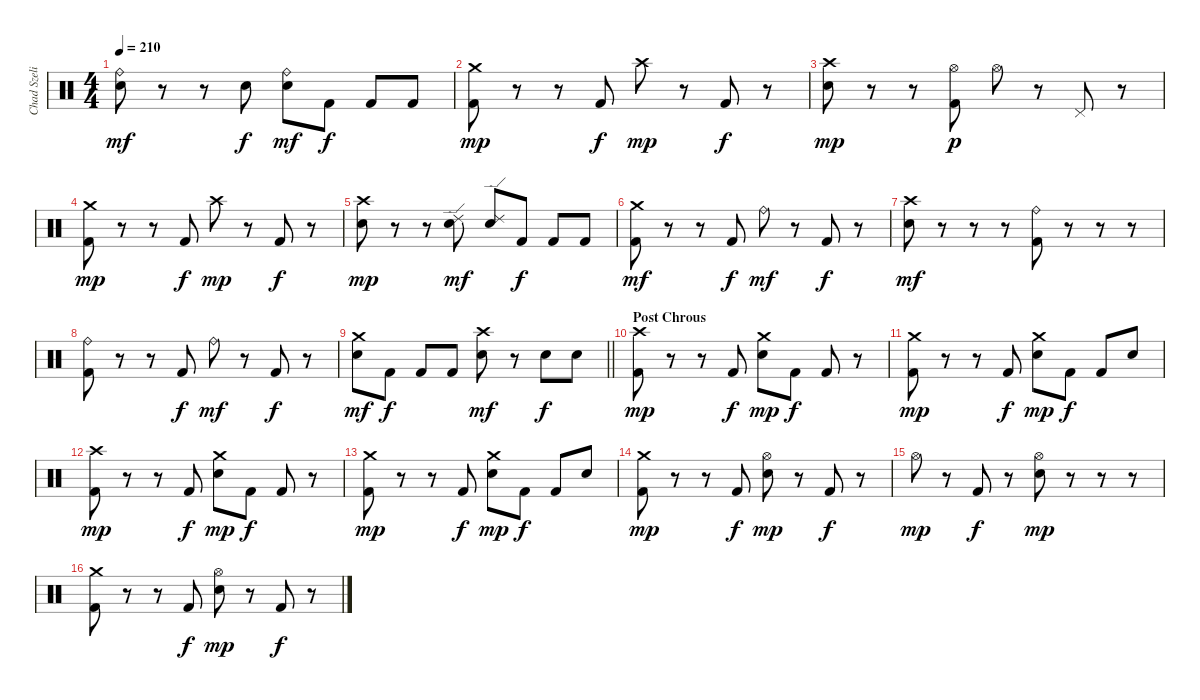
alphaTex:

\track ("Chad Szeliga" "Chad Szeli") {instrument percussion}
\staff {score}
\articulation defaults
\ts (4 4)
\tempo 210
\clef neutral
\ks c
("Snare (hit) 2" "Ride (bell)").8{dy mf} r.8 r.8 "Snare (hit) 2".8{dy f} ("Snare (hit) 2" "Ride (bell)").8{dy mf} "Kick (hit) 2".8{dy f} "Kick (hit) 2".8 "Kick (hit) 2".8 |
("Kick (hit) 2" "Crash medium (hit)").8{dy mp} r.8 r.8 "Kick (hit) 2".8{dy f} "Crash high (hit)".8{dy mp} r.8 "Kick (hit) 2".8{dy f} r.8 |
("Snare (hit) 2" "Crash high (hit)").8{dy mp} r.8 r.8 ("Kick (hit) 2" "Hi-Hat (open)").8{dy p} "Hi-Hat (open)".8 r.8 "Pedal Hi-Hat (hit)".8 r.8 |
("Kick (hit) 2" "Crash medium (hit)").8{dy mp} r.8 r.8 "Kick (hit) 2".8{dy f} "Crash high (hit)".8{dy mp} r.8 "Kick (hit) 2".8{dy f} r.8 |
("Snare (hit) 2" "Crash high (hit)").8{dy mp} r.8 r.8 ("Snare (hit) 2" "Ride (edge) 2").8{dy mf} ("Snare (hit) 2" "Ride (edge) 2").8 "Kick (hit) 2".8{dy f} "Kick (hit) 2".8 "Kick (hit) 2".8 |
("Kick (hit) 2" "Crash medium (hit)").8{dy mf} r.8 r.8 "Kick (hit) 2".8{dy f} "Ride (bell)".8{dy mf} r.8 "Kick (hit) 2".8{dy f} r.8 |
("Snare (hit) 2" "Crash high (hit)").8{dy mf} r.8 r.8 r.8 ("Kick (hit) 2" "Ride (bell)").8 r.8 r.8 r.8 |
("Kick (hit) 2" "Ride (bell)").8 r.8 r.8 "Kick (hit) 2".8{dy f} "Ride (bell)".8{dy mf} r.8 "Kick (hit) 2".8{dy f} r.8 |
\barLineRight lightlight
("Snare (hit) 2" "Crash medium (hit)").8{dy mf} "Kick (hit) 2".8{dy f} "Kick (hit) 2".8 "Kick (hit) 2".8 ("Snare (hit) 2" "Crash high (hit)").8{dy mf} r.8 "Snare (hit) 2".8{dy f} "Snare (hit) 2".8 |
\section ("" "Post Chrous")
("Kick (hit) 2" "Crash high (hit)").8{dy mp} r.8 r.8 "Kick (hit) 2".8{dy f} ("Snare (hit) 2" "Crash medium (hit)").8{dy mp} "Kick (hit) 2".8{dy f} "Kick (hit) 2".8 r.8 |
("Kick (hit) 2" "Crash medium (hit)").8{dy mp} r.8 r.8 "Kick (hit) 2".8{dy f} ("Snare (hit) 2" "Crash medium (hit)").8{dy mp} "Kick (hit) 2".8{dy f} "Kick (hit) 2".8 "Snare (hit) 2".8 |
("Kick (hit) 2" "Crash high (hit)").8{dy mp} r.8 r.8 "Kick (hit) 2".8{dy f} ("Snare (hit) 2" "Crash medium (hit)").8{dy mp} "Kick (hit) 2".8{dy f} "Kick (hit) 2".8 r.8 |
("Kick (hit) 2" "Crash medium (hit)").8{dy mp} r.8 r.8 "Kick (hit) 2".8{dy f} ("Snare (hit) 2" "Crash medium (hit)").8{dy mp} "Kick (hit) 2".8{dy f} "Kick (hit) 2".8 "Snare (hit) 2".8 |
("Kick (hit) 2" "Crash medium (hit)").8{dy mp} r.8 r.8 "Kick (hit) 2".8{dy f} ("Snare (hit) 2" "Hi-Hat (open)").8{dy mp} r.8 "Kick (hit) 2".8{dy f} r.8 |
"Hi-Hat (open)".8{dy mp} r.8 "Kick (hit) 2".8{dy f} r.8 ("Snare (hit) 2" "Hi-Hat (open)").8{dy mp} r.8 r.8 r.8 |
("Kick (hit) 2" "Crash medium (hit)").8 r.8 r.8 "Kick (hit) 2".8{dy f} ("Snare (hit) 2" "Hi-Hat (open)").8{dy mp} r.8 "Kick (hit) 2".8{dy f} r.8
